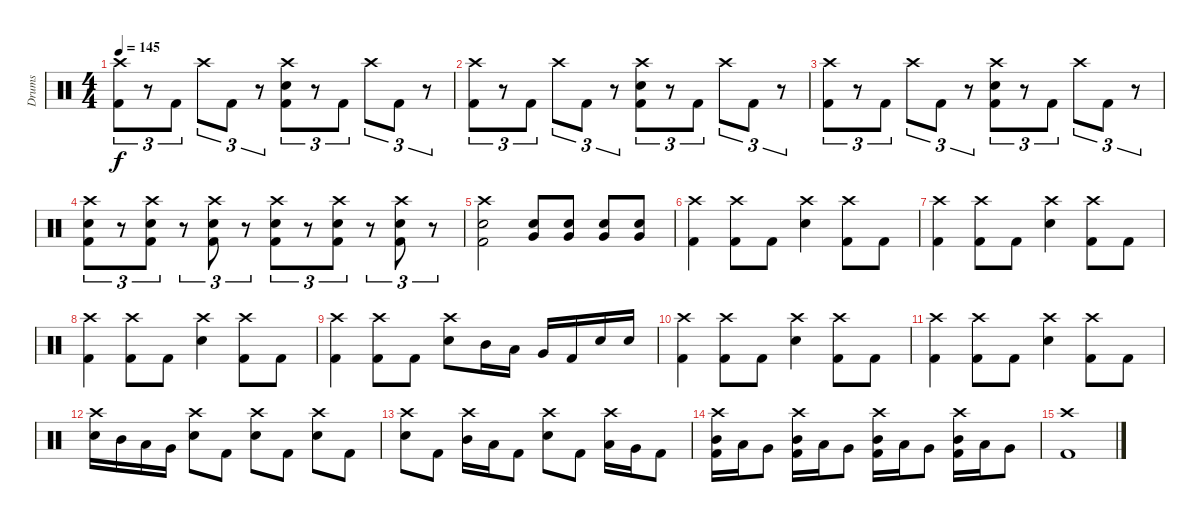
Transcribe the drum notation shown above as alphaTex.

\track ("Drums" "Drums") {instrument percussion}
\staff {score}
\articulation defaults
\ts (4 4)
\tempo 145
\clef neutral
\ks c
("Crash high (hit)" "Kick (hit) 2").8{tu (3 2) dy f} r.8{tu (3 2)} "Kick (hit) 2".8{tu (3 2)} "Crash high (hit)".8{tu (3 2)} "Kick (hit) 2".8{tu (3 2)} r.8{tu (3 2)} ("Crash high (hit)" "Snare (hit) 2" "Kick (hit) 2").8{tu (3 2)} r.8{tu (3 2)} "Kick (hit) 2".8{tu (3 2)} "Crash high (hit)".8{tu (3 2)} "Kick (hit) 2".8{tu (3 2)} r.8{tu (3 2)} |
("Crash high (hit)" "Kick (hit) 2").8{tu (3 2)} r.8{tu (3 2)} "Kick (hit) 2".8{tu (3 2)} "Crash high (hit)".8{tu (3 2)} "Kick (hit) 2".8{tu (3 2)} r.8{tu (3 2)} ("Crash high (hit)" "Snare (hit) 2" "Kick (hit) 2").8{tu (3 2)} r.8{tu (3 2)} "Kick (hit) 2".8{tu (3 2)} "Crash high (hit)".8{tu (3 2)} "Kick (hit) 2".8{tu (3 2)} r.8{tu (3 2)} |
("Crash high (hit)" "Kick (hit) 2").8{tu (3 2)} r.8{tu (3 2)} "Kick (hit) 2".8{tu (3 2)} "Crash high (hit)".8{tu (3 2)} "Kick (hit) 2".8{tu (3 2)} r.8{tu (3 2)} ("Crash high (hit)" "Snare (hit) 2" "Kick (hit) 2").8{tu (3 2)} r.8{tu (3 2)} "Kick (hit) 2".8{tu (3 2)} "Crash high (hit)".8{tu (3 2)} "Kick (hit) 2".8{tu (3 2)} r.8{tu (3 2)} |
("Crash high (hit)" "Snare (hit) 2" "Kick (hit) 2").8{tu (3 2)} r.8{tu (3 2)} ("Crash high (hit)" "Snare (hit) 2" "Kick (hit) 2").8{tu (3 2)} r.8{tu (3 2)} ("Crash high (hit)" "Snare (hit) 2" "Kick (hit) 2").8{tu (3 2)} r.8{tu (3 2)} ("Crash high (hit)" "Snare (hit) 2" "Kick (hit) 2").8{tu (3 2)} r.8{tu (3 2)} ("Crash high (hit)" "Snare (hit) 2" "Kick (hit) 2").8{tu (3 2)} r.8{tu (3 2)} ("Crash high (hit)" "Snare (hit) 2" "Kick (hit) 2").8{tu (3 2)} r.8{tu (3 2)} |
("Crash high (hit)" "Snare (hit) 2" "Kick (hit) 2").2 ("Very Low Tom (hit)" "Snare (hit) 2").8 ("Very Low Tom (hit)" "Snare (hit) 2").8 ("Very Low Tom (hit)" "Snare (hit) 2").8 ("Very Low Tom (hit)" "Snare (hit) 2").8 |
("Crash high (hit)" "Kick (hit) 2").4 ("Crash high (hit)" "Kick (hit) 2").8 "Kick (hit) 2".8 ("Crash high (hit)" "Snare (hit) 2").4 ("Crash high (hit)" "Kick (hit) 2").8 "Kick (hit) 2".8 |
("Crash high (hit)" "Kick (hit) 2").4 ("Crash high (hit)" "Kick (hit) 2").8 "Kick (hit) 2".8 ("Crash high (hit)" "Snare (hit) 2").4 ("Crash high (hit)" "Kick (hit) 2").8 "Kick (hit) 2".8 |
("Crash high (hit)" "Kick (hit) 2").4 ("Crash high (hit)" "Kick (hit) 2").8 "Kick (hit) 2".8 ("Crash high (hit)" "Snare (hit) 2").4 ("Crash high (hit)" "Kick (hit) 2").8 "Kick (hit) 2".8 |
("Crash high (hit)" "Kick (hit) 2").4 ("Crash high (hit)" "Kick (hit) 2").8 "Kick (hit) 2".8 ("Crash high (hit)" "Snare (hit) 2").8 "Mid Tom (hit)".16 "Low Tom (hit)".16 "Very Low Tom (hit)".16 "Kick (hit) 2".16 "Snare (hit) 2".16 "Snare (hit) 2".16 |
("Crash high (hit)" "Kick (hit) 2").4 ("Crash high (hit)" "Kick (hit) 2").8 "Kick (hit) 2".8 ("Crash high (hit)" "Snare (hit) 2").4 ("Crash high (hit)" "Kick (hit) 2").8 "Kick (hit) 2".8 |
("Crash high (hit)" "Kick (hit) 2").4 ("Crash high (hit)" "Kick (hit) 2").8 "Kick (hit) 2".8 ("Crash high (hit)" "Snare (hit) 2").4 ("Crash high (hit)" "Kick (hit) 2").8 "Kick (hit) 2".8 |
("Crash high (hit)" "Snare (hit) 2").16 "Mid Tom (hit)".16 "Low Tom (hit)".16 "Very Low Tom (hit)".16 ("Crash high (hit)" "Snare (hit) 2").8 "Kick (hit) 2".8 ("Crash high (hit)" "Snare (hit) 2").8 "Kick (hit) 2".8 ("Crash high (hit)" "Snare (hit) 2").8 "Kick (hit) 2".8 |
("Crash high (hit)" "Snare (hit) 2").8 "Kick (hit) 2".8 ("Crash high (hit)" "Mid Tom (hit)").16 "Low Tom (hit)".16 "Kick (hit) 2".8 ("Crash high (hit)" "Snare (hit) 2").8 "Kick (hit) 2".8 ("Crash high (hit)" "Low Tom (hit)").16 "Very Low Tom (hit)".16 "Kick (hit) 2".8 |
("Crash high (hit)" "Mid Tom (hit)" "Kick (hit) 2").16 "Low Tom (hit)".16 "Very Low Tom (hit)".8 ("Crash high (hit)" "Mid Tom (hit)" "Kick (hit) 2").16 "Low Tom (hit)".16 "Very Low Tom (hit)".8 ("Crash high (hit)" "Mid Tom (hit)" "Kick (hit) 2").16 "Low Tom (hit)".16 "Very Low Tom (hit)".8 ("Crash high (hit)" "Mid Tom (hit)" "Kick (hit) 2").16 "Low Tom (hit)".16 "Very Low Tom (hit)".8 |
("Crash high (hit)" "Kick (hit) 2").1
